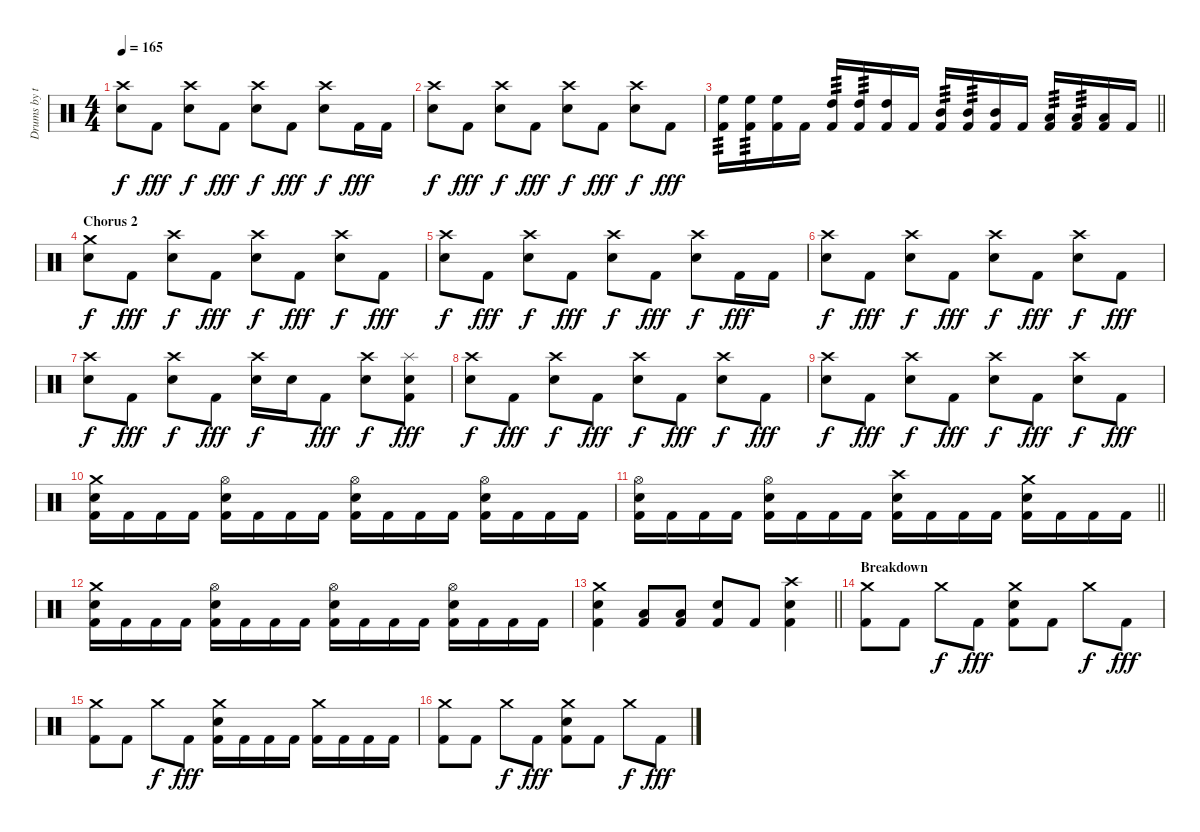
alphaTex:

\track ("Drums by terryn0" "Drums by t") {instrument percussion}
\staff {score}
\articulation defaults
\ts (4 4)
\tempo 165
\clef neutral
\ks c
("Crash high (hit)" "Electric Snare (hit)").8{dy f} "Kick (hit) 2".8{dy fff} ("Crash high (hit)" "Electric Snare (hit)").8{dy f} "Kick (hit) 2".8{dy fff} ("Crash high (hit)" "Electric Snare (hit)").8{dy f} "Kick (hit) 2".8{dy fff} ("Crash high (hit)" "Electric Snare (hit)").8{dy f} "Kick (hit) 2".16{dy fff} "Kick (hit) 2".16 |
("Crash high (hit)" "Electric Snare (hit)").8{dy f} "Kick (hit) 2".8{dy fff} ("Crash high (hit)" "Electric Snare (hit)").8{dy f} "Kick (hit) 2".8{dy fff} ("Crash high (hit)" "Electric Snare (hit)").8{dy f} "Kick (hit) 2".8{dy fff} ("Crash high (hit)" "Electric Snare (hit)").8{dy f} "Kick (hit) 2".8{dy fff} |
\barLineRight lightlight
("High Floor Tom (hit)" "Kick (hit) 2").16{tp 3} ("High Floor Tom (hit)" "Kick (hit) 2").16{tp 3} ("High Floor Tom (hit)" "Kick (hit) 2").16 "Kick (hit) 2".16 ("High Tom (hit)" "Kick (hit) 2").16{tp 3} ("High Tom (hit)" "Kick (hit) 2").16{tp 3} ("High Tom (hit)" "Kick (hit) 2").16 "Kick (hit) 2".16 ("Mid Tom (hit)" "Kick (hit) 2").16{tp 3} ("Mid Tom (hit)" "Kick (hit) 2").16{tp 3} ("Mid Tom (hit)" "Kick (hit) 2").16 "Kick (hit) 2".16 ("Low Tom (hit)" "Kick (hit) 2").16{tp 3} ("Low Tom (hit)" "Kick (hit) 2").16{tp 3} ("Low Tom (hit)" "Kick (hit) 2").16 "Kick (hit) 2".16 |
\section ("" "Chorus 2")
("Crash medium (hit)" "Electric Snare (hit)").8{dy f} "Kick (hit) 2".8{dy fff} ("Crash high (hit)" "Electric Snare (hit)").8{dy f} "Kick (hit) 2".8{dy fff} ("Crash high (hit)" "Electric Snare (hit)").8{dy f} "Kick (hit) 2".8{dy fff} ("Crash high (hit)" "Electric Snare (hit)").8{dy f} "Kick (hit) 2".8{dy fff} |
("Crash high (hit)" "Electric Snare (hit)").8{dy f} "Kick (hit) 2".8{dy fff} ("Crash high (hit)" "Electric Snare (hit)").8{dy f} "Kick (hit) 2".8{dy fff} ("Crash high (hit)" "Electric Snare (hit)").8{dy f} "Kick (hit) 2".8{dy fff} ("Crash high (hit)" "Electric Snare (hit)").8{dy f} "Kick (hit) 2".16{dy fff} "Kick (hit) 2".16 |
("Crash high (hit)" "Electric Snare (hit)").8{dy f} "Kick (hit) 2".8{dy fff} ("Crash high (hit)" "Electric Snare (hit)").8{dy f} "Kick (hit) 2".8{dy fff} ("Crash high (hit)" "Electric Snare (hit)").8{dy f} "Kick (hit) 2".8{dy fff} ("Crash high (hit)" "Electric Snare (hit)").8{dy f} "Kick (hit) 2".8{dy fff} |
("Crash high (hit)" "Electric Snare (hit)").8{dy f} "Kick (hit) 2".8{dy fff} ("Crash high (hit)" "Electric Snare (hit)").8{dy f} "Kick (hit) 2".8{dy fff} ("Crash high (hit)" "Electric Snare (hit)").16{dy f} "Electric Snare (hit)".16 "Kick (hit) 2".8{dy fff} ("Crash high (hit)" "Electric Snare (hit)").8{dy f} ("Splash (hit)" "Electric Snare (hit)" "Kick (hit) 2").8{dy fff} |
("Crash high (hit)" "Electric Snare (hit)").8{dy f} "Kick (hit) 2".8{dy fff} ("Crash high (hit)" "Electric Snare (hit)").8{dy f} "Kick (hit) 2".8{dy fff} ("Crash high (hit)" "Electric Snare (hit)").8{dy f} "Kick (hit) 2".8{dy fff} ("Crash high (hit)" "Electric Snare (hit)").8{dy f} "Kick (hit) 2".8{dy fff} |
("Crash high (hit)" "Electric Snare (hit)").8{dy f} "Kick (hit) 2".8{dy fff} ("Crash high (hit)" "Electric Snare (hit)").8{dy f} "Kick (hit) 2".8{dy fff} ("Crash high (hit)" "Electric Snare (hit)").8{dy f} "Kick (hit) 2".8{dy fff} ("Crash high (hit)" "Electric Snare (hit)").8{dy f} "Kick (hit) 2".8{dy fff} |
("Crash medium (hit)" "Electric Snare (hit)" "Kick (hit) 2").16 "Kick (hit) 2".16 "Kick (hit) 2".16 "Kick (hit) 2".16 ("Hi-Hat (open)" "Electric Snare (hit)" "Kick (hit) 2").16 "Kick (hit) 2".16 "Kick (hit) 2".16 "Kick (hit) 2".16 ("Hi-Hat (open)" "Electric Snare (hit)" "Kick (hit) 2").16 "Kick (hit) 2".16 "Kick (hit) 2".16 "Kick (hit) 2".16 ("Hi-Hat (open)" "Electric Snare (hit)" "Kick (hit) 2").16 "Kick (hit) 2".16 "Kick (hit) 2".16 "Kick (hit) 2".16 |
\barLineRight lightlight
("Hi-Hat (open)" "Electric Snare (hit)" "Kick (hit) 2").16 "Kick (hit) 2".16 "Kick (hit) 2".16 "Kick (hit) 2".16 ("Hi-Hat (open)" "Electric Snare (hit)" "Kick (hit) 2").16 "Kick (hit) 2".16 "Kick (hit) 2".16 "Kick (hit) 2".16 ("Crash high (hit)" "Electric Snare (hit)" "Kick (hit) 2").16 "Kick (hit) 2".16 "Kick (hit) 2".16 "Kick (hit) 2".16 ("Crash medium (hit)" "Electric Snare (hit)" "Kick (hit) 2").16 "Kick (hit) 2".16 "Kick (hit) 2".16 "Kick (hit) 2".16 |
("Crash medium (hit)" "Electric Snare (hit)" "Kick (hit) 2").16 "Kick (hit) 2".16 "Kick (hit) 2".16 "Kick (hit) 2".16 ("Hi-Hat (open)" "Electric Snare (hit)" "Kick (hit) 2").16 "Kick (hit) 2".16 "Kick (hit) 2".16 "Kick (hit) 2".16 ("Hi-Hat (open)" "Electric Snare (hit)" "Kick (hit) 2").16 "Kick (hit) 2".16 "Kick (hit) 2".16 "Kick (hit) 2".16 ("Hi-Hat (open)" "Electric Snare (hit)" "Kick (hit) 2").16 "Kick (hit) 2".16 "Kick (hit) 2".16 "Kick (hit) 2".16 |
\barLineRight lightlight
("Crash medium (hit)" "Electric Snare (hit)" "Kick (hit) 2").4 ("Low Tom (hit)" "Kick (hit) 2").8 ("Low Tom (hit)" "Kick (hit) 2").8 ("Electric Snare (hit)" "Kick (hit) 2").8 "Kick (hit) 2".8 ("Crash high (hit)" "Electric Snare (hit)" "Kick (hit) 2").4 |
\section ("" "Breakdown")
("Crash medium (hit)" "Kick (hit) 2").8 "Kick (hit) 2".8 "Crash medium (hit)".8{dy f} "Kick (hit) 2".8{dy fff} ("Crash medium (hit)" "Electric Snare (hit)" "Kick (hit) 2").8 "Kick (hit) 2".8 "Crash medium (hit)".8{dy f} "Kick (hit) 2".8{dy fff} |
("Crash medium (hit)" "Kick (hit) 2").8 "Kick (hit) 2".8 "Crash medium (hit)".8{dy f} "Kick (hit) 2".8{dy fff} ("Crash medium (hit)" "Electric Snare (hit)" "Kick (hit) 2").16 "Kick (hit) 2".16 "Kick (hit) 2".16 "Kick (hit) 2".16 ("Crash medium (hit)" "Kick (hit) 2").16 "Kick (hit) 2".16 "Kick (hit) 2".16 "Kick (hit) 2".16 |
("Crash medium (hit)" "Kick (hit) 2").8 "Kick (hit) 2".8 "Crash medium (hit)".8{dy f} "Kick (hit) 2".8{dy fff} ("Crash medium (hit)" "Electric Snare (hit)" "Kick (hit) 2").8 "Kick (hit) 2".8 "Crash medium (hit)".8{dy f} "Kick (hit) 2".8{dy fff}
